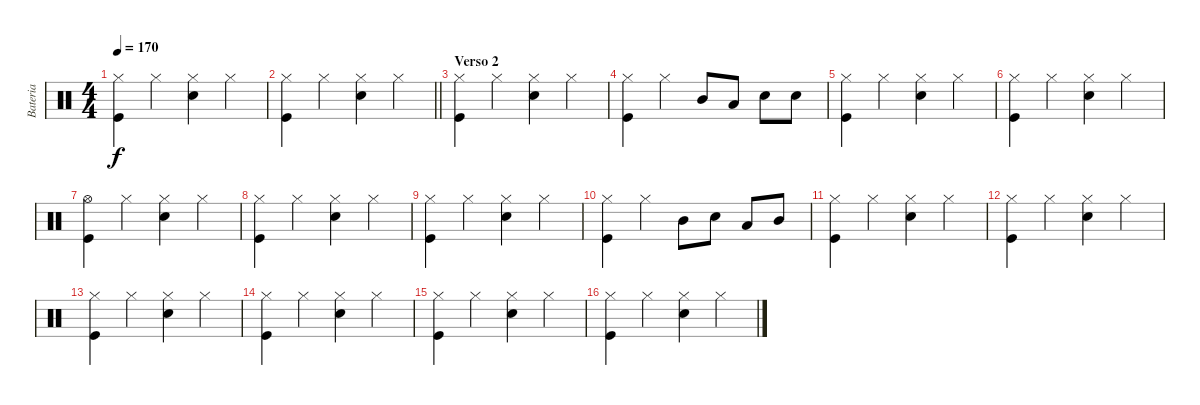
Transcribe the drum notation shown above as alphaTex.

\track ("Bateria" "Bateria") {instrument percussion}
\staff {score}
\articulation defaults
\ts (4 4)
\tempo 170
\clef neutral
\ks c
("Hi-Hat (closed)" "Kick (hit)").4{dy f} "Hi-Hat (closed)".4 ("Hi-Hat (closed)" "Snare (hit) 2").4 "Hi-Hat (closed)".4 |
\barLineRight lightlight
("Hi-Hat (closed)" "Kick (hit)").4 "Hi-Hat (closed)".4 ("Hi-Hat (closed)" "Snare (hit) 2").4 "Hi-Hat (closed)".4 |
\section ("" "Verso 2")
("Hi-Hat (closed)" "Kick (hit)").4 "Hi-Hat (closed)".4 ("Hi-Hat (closed)" "Snare (hit) 2").4 "Hi-Hat (closed)".4 |
("Hi-Hat (closed)" "Kick (hit)").4 "Hi-Hat (closed)".4 "Mid Tom (hit)".8 "Low Tom (hit)".8 "Snare (hit) 2".8 "Snare (hit) 2".8 |
("Hi-Hat (closed)" "Kick (hit)").4 "Hi-Hat (closed)".4 ("Hi-Hat (closed)" "Snare (hit) 2").4 "Hi-Hat (closed)".4 |
("Hi-Hat (closed)" "Kick (hit)").4 "Hi-Hat (closed)".4 ("Hi-Hat (closed)" "Snare (hit) 2").4 "Hi-Hat (closed)".4 |
("Hi-Hat (open)" "Kick (hit)").4 "Hi-Hat (closed)".4 ("Hi-Hat (closed)" "Snare (hit) 2").4 "Hi-Hat (closed)".4 |
("Hi-Hat (closed)" "Kick (hit)").4 "Hi-Hat (closed)".4 ("Hi-Hat (closed)" "Snare (hit) 2").4 "Hi-Hat (closed)".4 |
("Hi-Hat (closed)" "Kick (hit)").4 "Hi-Hat (closed)".4 ("Hi-Hat (closed)" "Snare (hit) 2").4 "Hi-Hat (closed)".4 |
("Hi-Hat (closed)" "Kick (hit)").4 "Hi-Hat (closed)".4 "Mid Tom (hit)".8 "Snare (hit) 2".8 "Low Tom (hit)".8 "Mid Tom (hit)".8 |
("Hi-Hat (closed)" "Kick (hit)").4 "Hi-Hat (closed)".4 ("Hi-Hat (closed)" "Snare (hit) 2").4 "Hi-Hat (closed)".4 |
("Hi-Hat (closed)" "Kick (hit)").4 "Hi-Hat (closed)".4 ("Hi-Hat (closed)" "Snare (hit) 2").4 "Hi-Hat (closed)".4 |
("Hi-Hat (closed)" "Kick (hit)").4 "Hi-Hat (closed)".4 ("Hi-Hat (closed)" "Snare (hit) 2").4 "Hi-Hat (closed)".4 |
("Hi-Hat (closed)" "Kick (hit)").4 "Hi-Hat (closed)".4 ("Hi-Hat (closed)" "Snare (hit) 2").4 "Hi-Hat (closed)".4 |
("Hi-Hat (closed)" "Kick (hit)").4 "Hi-Hat (closed)".4 ("Hi-Hat (closed)" "Snare (hit) 2").4 "Hi-Hat (closed)".4 |
("Hi-Hat (closed)" "Kick (hit)").4 "Hi-Hat (closed)".4 ("Hi-Hat (closed)" "Snare (hit) 2").4 "Hi-Hat (closed)".4
